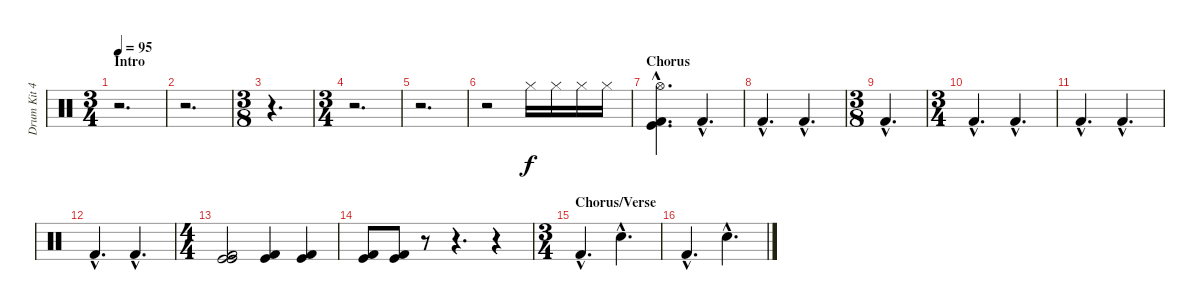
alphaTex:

\track ("Drum Kit 42" "Drum Kit 4") {instrument percussion}
\staff {score}
\articulation defaults
\ts (3 4)
\section ("" "Intro")
\tempo 95
\clef neutral
\ks c
r.2{d dy f} |
r.2{d} |
\ts (3 8)
r.4{d} |
\ts (3 4)
r.2{d} |
r.2{d} |
r.2 "Hi-Hat (closed)".16{volume 16} "Hi-Hat (closed)".16 "Hi-Hat (closed)".16 "Hi-Hat (closed)".16 |
\section ("" "Chorus")
("Hi-Hat (open)"{hac} "Kick (hit) 2"{hac} "Kick (hit)"{hac}).4{d volume 13} "Kick (hit) 2"{hac}.4{d} |
"Kick (hit) 2"{hac}.4{d} "Kick (hit) 2"{hac}.4{d} |
\ts (3 8)
"Kick (hit) 2"{hac}.4{d} |
\ts (3 4)
"Kick (hit) 2"{hac}.4{d} "Kick (hit) 2"{hac}.4{d} |
"Kick (hit) 2"{hac}.4{d} "Kick (hit) 2"{hac}.4{d} |
"Kick (hit) 2"{hac}.4{d} "Kick (hit) 2"{hac}.4{d} |
\ts (4 4)
("Kick (hit) 2" "Kick (hit)" "Kick (hit)").2 ("Kick (hit) 2" "Kick (hit)").4 ("Kick (hit) 2" "Kick (hit)").4 |
("Kick (hit) 2" "Kick (hit)").8 ("Kick (hit) 2" "Kick (hit)").8 r.8 r.4{d} r.4 |
\ts (3 4)
\section ("" "Chorus/Verse")
"Kick (hit) 2"{hac}.4{d} "Snare (hit) 2"{hac}.4{d} |
"Kick (hit) 2"{hac}.4{d} "Snare (hit) 2"{hac}.4{d}
